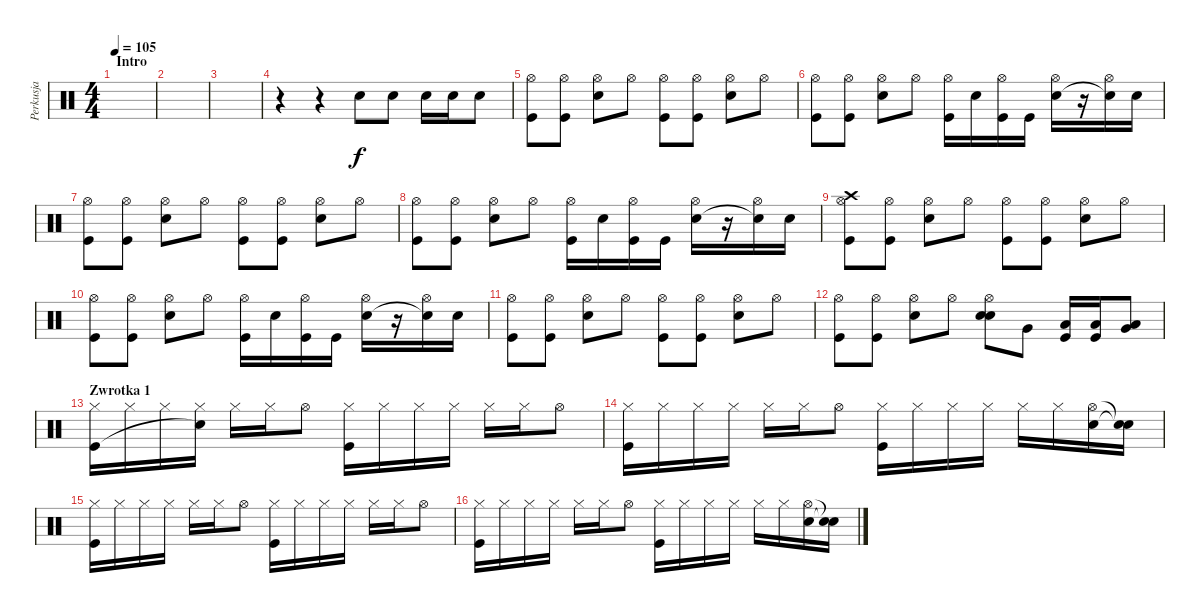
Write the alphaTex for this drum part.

\track ("Perkusja" "Perkusja") {instrument percussion}
\staff {score}
\articulation defaults
\ts (4 4)
\section ("" "Intro")
\tempo 105
\clef neutral
\ks c
|
|
|
r.4 r.4 "Snare (hit) 2".8 "Snare (hit) 2".8 "Snare (hit) 2".16 "Snare (hit) 2".16 "Snare (hit) 2".8 |
("Hi-Hat (open)" "Kick (hit)").8 ("Hi-Hat (open)" "Kick (hit)").8 ("Hi-Hat (open)" "Snare (hit) 2").8 "Hi-Hat (open)".8 ("Hi-Hat (open)" "Kick (hit)").8 ("Hi-Hat (open)" "Kick (hit)").8 ("Hi-Hat (open)" "Snare (hit) 2").8 "Hi-Hat (open)".8 |
("Hi-Hat (open)" "Kick (hit)").8 ("Hi-Hat (open)" "Kick (hit)").8 ("Hi-Hat (open)" "Snare (hit) 2").8 "Hi-Hat (open)".8 ("Hi-Hat (open)" "Kick (hit)").16 "Snare (hit) 2".16 ("Hi-Hat (open)" "Kick (hit)").16 "Kick (hit)".16 ("Hi-Hat (open)" "Snare (hit) 2").16 r.16 ("Hi-Hat (open)" "Snare (hit)"{t}).16 "Snare (hit) 2".16 |
("Hi-Hat (open)" "Kick (hit)").8 ("Hi-Hat (open)" "Kick (hit)").8 ("Hi-Hat (open)" "Snare (hit) 2").8 "Hi-Hat (open)".8 ("Hi-Hat (open)" "Kick (hit)").8 ("Hi-Hat (open)" "Kick (hit)").8 ("Hi-Hat (open)" "Snare (hit) 2").8 "Hi-Hat (open)".8 |
("Hi-Hat (open)" "Kick (hit)").8 ("Hi-Hat (open)" "Kick (hit)").8 ("Hi-Hat (open)" "Snare (hit) 2").8 "Hi-Hat (open)".8 ("Hi-Hat (open)" "Kick (hit)").16 "Snare (hit) 2".16 ("Hi-Hat (open)" "Kick (hit)").16 "Kick (hit)".16 ("Hi-Hat (open)" "Snare (hit) 2").16 r.16 ("Hi-Hat (open)" "Snare (hit)"{t}).16 "Snare (hit) 2".16 |
("Hi-Hat (open)" "Crash high (hit)" "Kick (hit)").8 ("Hi-Hat (open)" "Kick (hit)").8 ("Hi-Hat (open)" "Snare (hit) 2").8 "Hi-Hat (open)".8 ("Hi-Hat (open)" "Kick (hit)").8 ("Hi-Hat (open)" "Kick (hit)").8 ("Hi-Hat (open)" "Snare (hit) 2").8 "Hi-Hat (open)".8 |
("Hi-Hat (open)" "Kick (hit)").8 ("Hi-Hat (open)" "Kick (hit)").8 ("Hi-Hat (open)" "Snare (hit) 2").8 "Hi-Hat (open)".8 ("Hi-Hat (open)" "Kick (hit)").16 "Snare (hit) 2".16 ("Hi-Hat (open)" "Kick (hit)").16 "Kick (hit)".16 ("Hi-Hat (open)" "Snare (hit) 2").16 r.16 ("Hi-Hat (open)" "Snare (hit)"{t}).16 "Snare (hit) 2".16 |
("Hi-Hat (open)" "Kick (hit)").8 ("Hi-Hat (open)" "Kick (hit)").8 ("Hi-Hat (open)" "Snare (hit) 2").8 "Hi-Hat (open)".8 ("Hi-Hat (open)" "Kick (hit)").8 ("Hi-Hat (open)" "Kick (hit)").8 ("Hi-Hat (open)" "Snare (hit) 2").8 "Hi-Hat (open)".8 |
("Hi-Hat (open)" "Kick (hit)").8 ("Hi-Hat (open)" "Kick (hit)").8 ("Hi-Hat (open)" "Snare (hit) 2").8 "Hi-Hat (open)".8 ("Hi-Hat (open)" "Snare (hit) 2" "Snare (hit) 2").8 "Very Low Tom (hit)".8 ("Low Tom (hit)" "Kick (hit)").16 ("Low Tom (hit)" "Kick (hit)").16 ("Low Tom (hit)" "Very Low Tom (hit)").8 |
\section ("" "Zwrotka 1")
("Hi-Hat (closed)" "Kick (hit)").16 "Hi-Hat (closed)".16 "Hi-Hat (closed)".16 ("Hi-Hat (closed)" "Snare (hit)"{t}).16 "Hi-Hat (closed)".16 "Hi-Hat (closed)".16 "Hi-Hat (open)".8 ("Hi-Hat (closed)" "Kick (hit)").16 "Hi-Hat (closed)".16 "Hi-Hat (closed)".16 "Hi-Hat (closed)".16 "Hi-Hat (closed)".16 "Hi-Hat (closed)".16 "Hi-Hat (open)".8 |
("Hi-Hat (closed)" "Kick (hit)").16 "Hi-Hat (closed)".16 "Hi-Hat (closed)".16 "Hi-Hat (closed)".16 "Hi-Hat (closed)".16 "Hi-Hat (closed)".16 "Hi-Hat (open)".8 ("Hi-Hat (closed)" "Kick (hit)").16 "Hi-Hat (closed)".16 "Hi-Hat (closed)".16 "Hi-Hat (closed)".16 "Hi-Hat (closed)".16 "Hi-Hat (closed)".16 ("Hi-Hat (open)" "Snare (hit) 2").16 ("Snare (hit)"{t} "Snare (hit) 2"{t}).16 |
("Hi-Hat (closed)" "Kick (hit)").16 "Hi-Hat (closed)".16 "Hi-Hat (closed)".16 "Hi-Hat (closed)".16 "Hi-Hat (closed)".16 "Hi-Hat (closed)".16 "Hi-Hat (open)".8 ("Hi-Hat (closed)" "Kick (hit)").16 "Hi-Hat (closed)".16 "Hi-Hat (closed)".16 "Hi-Hat (closed)".16 "Hi-Hat (closed)".16 "Hi-Hat (closed)".16 "Hi-Hat (open)".8 |
("Hi-Hat (closed)" "Kick (hit)").16 "Hi-Hat (closed)".16 "Hi-Hat (closed)".16 "Hi-Hat (closed)".16 "Hi-Hat (closed)".16 "Hi-Hat (closed)".16 "Hi-Hat (open)".8 ("Hi-Hat (closed)" "Kick (hit)").16 "Hi-Hat (closed)".16 "Hi-Hat (closed)".16 "Hi-Hat (closed)".16 "Hi-Hat (closed)".16 "Hi-Hat (closed)".16 ("Hi-Hat (open)" "Snare (hit) 2").16 ("Snare (hit)"{t} "Snare (hit) 2"{t}).16
